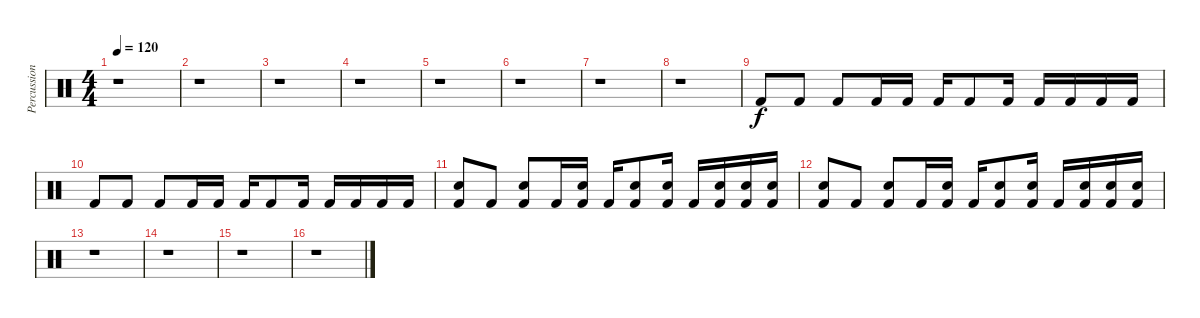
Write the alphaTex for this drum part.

\track ("Percussion" "Percussion") {instrument percussion}
\staff {score}
\articulation defaults
\ts (4 4)
\tempo 120
\clef neutral
\ks c
r.1{dy f} |
r.1 |
r.1 |
r.1 |
r.1 |
r.1 |
r.1 |
r.1 |
"Kick (hit) 2".8 "Kick (hit) 2".8 "Kick (hit) 2".8 "Kick (hit) 2".16 "Kick (hit) 2".16 "Kick (hit) 2".16 "Kick (hit) 2".8 "Kick (hit) 2".16 "Kick (hit) 2".16 "Kick (hit) 2".16 "Kick (hit) 2".16 "Kick (hit) 2".16 |
"Kick (hit) 2".8 "Kick (hit) 2".8 "Kick (hit) 2".8 "Kick (hit) 2".16 "Kick (hit) 2".16 "Kick (hit) 2".16 "Kick (hit) 2".8 "Kick (hit) 2".16 "Kick (hit) 2".16 "Kick (hit) 2".16 "Kick (hit) 2".16 "Kick (hit) 2".16 |
("Kick (hit) 2" "Snare (hit) 2").8 "Kick (hit) 2".8 ("Kick (hit) 2" "Snare (hit) 2").8 "Kick (hit) 2".16 ("Kick (hit) 2" "Snare (hit) 2").16 "Kick (hit) 2".16 ("Kick (hit) 2" "Snare (hit) 2").8 ("Kick (hit) 2" "Snare (hit) 2").16 "Kick (hit) 2".16 ("Kick (hit) 2" "Snare (hit) 2").16 ("Kick (hit) 2" "Snare (hit) 2").16 ("Kick (hit) 2" "Snare (hit) 2").16 |
("Kick (hit) 2" "Snare (hit) 2").8 "Kick (hit) 2".8 ("Kick (hit) 2" "Snare (hit) 2").8 "Kick (hit) 2".16 ("Kick (hit) 2" "Snare (hit) 2").16 "Kick (hit) 2".16 ("Kick (hit) 2" "Snare (hit) 2").8 ("Kick (hit) 2" "Snare (hit) 2").16 "Kick (hit) 2".16 ("Kick (hit) 2" "Snare (hit) 2").16 ("Kick (hit) 2" "Snare (hit) 2").16 ("Kick (hit) 2" "Snare (hit) 2").16 |
r.1 |
r.1 |
r.1 |
r.1
